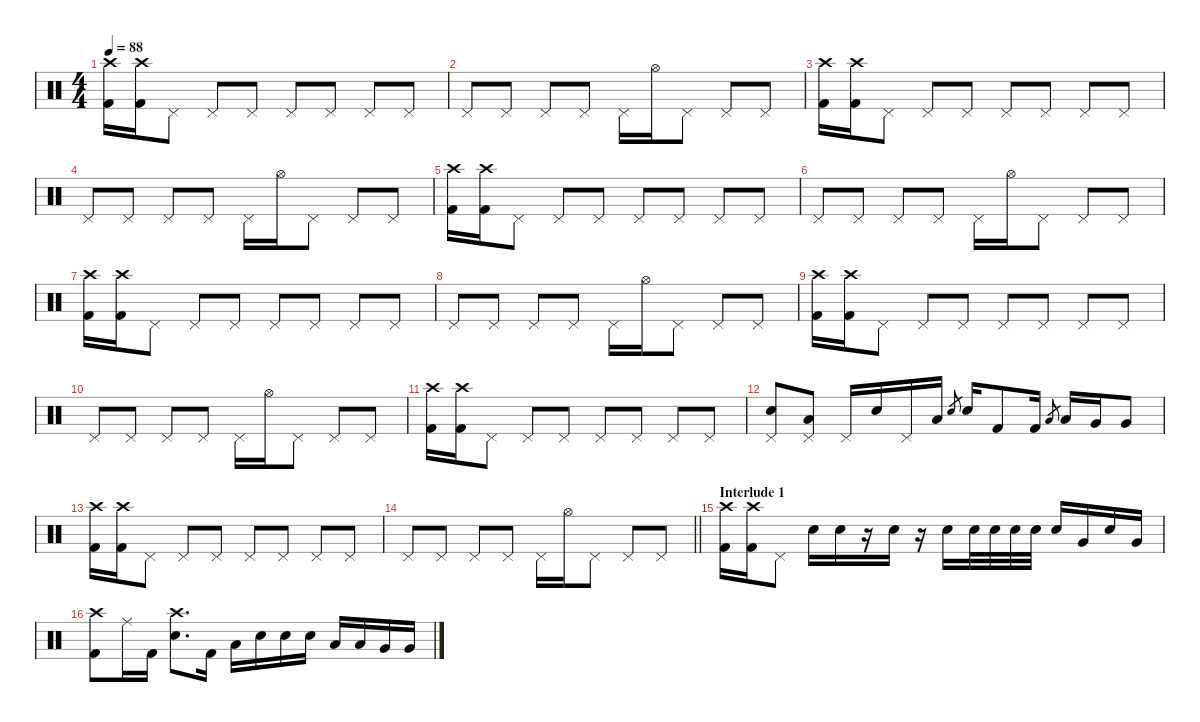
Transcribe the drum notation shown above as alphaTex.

\defaultSystemsLayout 4
\hideDynamics
\bracketExtendMode nobrackets
\singleTrackTrackNamePolicy hidden
\multiTrackTrackNamePolicy hidden
\firstSystemTrackNameMode fullname
\firstSystemTrackNameOrientation horizontal
\otherSystemsTrackNameOrientation horizontal
\track ("Drums" "drm.") {instrument percussion}
\staff {score}
\articulation defaults
\ts (4 4)
\tempo 88
\clef neutral
\ks c
("Crash high (hit)" "Kick (hit) 2").16{dy f beam Down} ("Crash high (hit)" "Kick (hit) 2").16{beam Down} "Pedal Hi-Hat (hit)".8{beam Down} "Pedal Hi-Hat (hit)".8{beam Up} "Pedal Hi-Hat (hit)".8{beam Up} "Pedal Hi-Hat (hit)".8{beam Up} "Pedal Hi-Hat (hit)".8{beam Up} "Pedal Hi-Hat (hit)".8{beam Up} "Pedal Hi-Hat (hit)".8{beam Up} |
"Pedal Hi-Hat (hit)".8{beam Up} "Pedal Hi-Hat (hit)".8{beam Up} "Pedal Hi-Hat (hit)".8{beam Up} "Pedal Hi-Hat (hit)".8{beam Up} "Pedal Hi-Hat (hit)".16{beam Down} "Hi-Hat (open)".16{beam Down} "Pedal Hi-Hat (hit)".8{beam Down} "Pedal Hi-Hat (hit)".8{beam Up} "Pedal Hi-Hat (hit)".8{beam Up} |
("Crash high (hit)" "Kick (hit) 2").16{beam Down} ("Crash high (hit)" "Kick (hit) 2").16{beam Down} "Pedal Hi-Hat (hit)".8{beam Down} "Pedal Hi-Hat (hit)".8{beam Up} "Pedal Hi-Hat (hit)".8{beam Up} "Pedal Hi-Hat (hit)".8{beam Up} "Pedal Hi-Hat (hit)".8{beam Up} "Pedal Hi-Hat (hit)".8{beam Up} "Pedal Hi-Hat (hit)".8{beam Up} |
"Pedal Hi-Hat (hit)".8{beam Up} "Pedal Hi-Hat (hit)".8{beam Up} "Pedal Hi-Hat (hit)".8{beam Up} "Pedal Hi-Hat (hit)".8{beam Up} "Pedal Hi-Hat (hit)".16{beam Down} "Hi-Hat (open)".16{beam Down} "Pedal Hi-Hat (hit)".8{beam Down} "Pedal Hi-Hat (hit)".8{beam Up} "Pedal Hi-Hat (hit)".8{beam Up} |
("Crash high (hit)" "Kick (hit) 2").16{beam Down} ("Crash high (hit)" "Kick (hit) 2").16{beam Down} "Pedal Hi-Hat (hit)".8{beam Down} "Pedal Hi-Hat (hit)".8{beam Up} "Pedal Hi-Hat (hit)".8{beam Up} "Pedal Hi-Hat (hit)".8{beam Up} "Pedal Hi-Hat (hit)".8{beam Up} "Pedal Hi-Hat (hit)".8{beam Up} "Pedal Hi-Hat (hit)".8{beam Up} |
"Pedal Hi-Hat (hit)".8{beam Up} "Pedal Hi-Hat (hit)".8{beam Up} "Pedal Hi-Hat (hit)".8{beam Up} "Pedal Hi-Hat (hit)".8{beam Up} "Pedal Hi-Hat (hit)".16{beam Down} "Hi-Hat (open)".16{beam Down} "Pedal Hi-Hat (hit)".8{beam Down} "Pedal Hi-Hat (hit)".8{beam Up} "Pedal Hi-Hat (hit)".8{beam Up} |
("Crash high (hit)" "Kick (hit) 2").16{beam Down} ("Crash high (hit)" "Kick (hit) 2").16{beam Down} "Pedal Hi-Hat (hit)".8{beam Down} "Pedal Hi-Hat (hit)".8{beam Up} "Pedal Hi-Hat (hit)".8{beam Up} "Pedal Hi-Hat (hit)".8{beam Up} "Pedal Hi-Hat (hit)".8{beam Up} "Pedal Hi-Hat (hit)".8{beam Up} "Pedal Hi-Hat (hit)".8{beam Up} |
"Pedal Hi-Hat (hit)".8{beam Up} "Pedal Hi-Hat (hit)".8{beam Up} "Pedal Hi-Hat (hit)".8{beam Up} "Pedal Hi-Hat (hit)".8{beam Up} "Pedal Hi-Hat (hit)".16{beam Down} "Hi-Hat (open)".16{beam Down} "Pedal Hi-Hat (hit)".8{beam Down} "Pedal Hi-Hat (hit)".8{beam Up} "Pedal Hi-Hat (hit)".8{beam Up} |
("Crash high (hit)" "Kick (hit) 2").16{beam Down} ("Crash high (hit)" "Kick (hit) 2").16{beam Down} "Pedal Hi-Hat (hit)".8{beam Down} "Pedal Hi-Hat (hit)".8{beam Up} "Pedal Hi-Hat (hit)".8{beam Up} "Pedal Hi-Hat (hit)".8{beam Up} "Pedal Hi-Hat (hit)".8{beam Up} "Pedal Hi-Hat (hit)".8{beam Up} "Pedal Hi-Hat (hit)".8{beam Up} |
"Pedal Hi-Hat (hit)".8{beam Up} "Pedal Hi-Hat (hit)".8{beam Up} "Pedal Hi-Hat (hit)".8{beam Up} "Pedal Hi-Hat (hit)".8{beam Up} "Pedal Hi-Hat (hit)".16{beam Down} "Hi-Hat (open)".16{beam Down} "Pedal Hi-Hat (hit)".8{beam Down} "Pedal Hi-Hat (hit)".8{beam Up} "Pedal Hi-Hat (hit)".8{beam Up} |
("Crash high (hit)" "Kick (hit) 2").16{beam Down} ("Crash high (hit)" "Kick (hit) 2").16{beam Down} "Pedal Hi-Hat (hit)".8{beam Down} "Pedal Hi-Hat (hit)".8{beam Up} "Pedal Hi-Hat (hit)".8{beam Up} "Pedal Hi-Hat (hit)".8{beam Up} "Pedal Hi-Hat (hit)".8{beam Up} "Pedal Hi-Hat (hit)".8{beam Up} "Pedal Hi-Hat (hit)".8{beam Up} |
("Pedal Hi-Hat (hit)" "Snare (hit) 2").8{beam Up} ("Pedal Hi-Hat (hit)" "Low Tom (hit)").8{beam Up} "Pedal Hi-Hat (hit)".16{beam Up} "Snare (hit) 2".16{beam Up} "Pedal Hi-Hat (hit)".16{beam Up} "Low Tom (hit)".16{beam Up} "Snare (hit) 2".8{gr dy mf beam Up} "Snare (hit) 2".16{dy f beam Up} "Kick (hit) 2".8{beam Up} "Kick (hit) 2".16{beam Up} "Low Tom (hit)".8{gr dy mf beam Up} "Low Tom (hit)".16{dy f beam Up} "Very Low Tom (hit)".16{beam Up} "Very Low Tom (hit)".8{beam Up} |
("Crash high (hit)" "Kick (hit) 2").16{beam Down} ("Crash high (hit)" "Kick (hit) 2").16{beam Down} "Pedal Hi-Hat (hit)".8{beam Down} "Pedal Hi-Hat (hit)".8{beam Up} "Pedal Hi-Hat (hit)".8{beam Up} "Pedal Hi-Hat (hit)".8{beam Up} "Pedal Hi-Hat (hit)".8{beam Up} "Pedal Hi-Hat (hit)".8{beam Up} "Pedal Hi-Hat (hit)".8{beam Up} |
\barLineRight lightlight "Pedal Hi-Hat (hit)".8{beam Up} "Pedal Hi-Hat (hit)".8{beam Up} "Pedal Hi-Hat (hit)".8{beam Up} "Pedal Hi-Hat (hit)".8{beam Up} "Pedal Hi-Hat (hit)".16{beam Down} "Hi-Hat (open)".16{beam Down} "Pedal Hi-Hat (hit)".8{beam Down} "Pedal Hi-Hat (hit)".8{beam Up} "Pedal Hi-Hat (hit)".8{beam Up}
|
\section ("" "Interlude 1")
("Crash high (hit)" "Kick (hit) 2").16{beam Down} ("Crash high (hit)" "Kick (hit) 2").16{beam Down} "Pedal Hi-Hat (hit)".8{beam Down} "Snare (hit) 2".16{beam Down} "Snare (hit) 2".16{beam Down} r.16{beam Down} "Snare (hit) 2".16{beam Down} r.16{beam Down} "Snare (hit) 2".16{beam Down} "Snare (hit) 2".32{beam Down} "Snare (hit) 2".32{beam Down} "Snare (hit) 2".32{beam Down} "Snare (hit) 2".32{beam Down} "Snare (hit) 2".16{beam Up} "Very Low Tom (hit)".16{beam Up} "Snare (hit) 2".16{beam Up} "Very Low Tom (hit)".16{beam Up} |
("Crash high (hit)" "Kick (hit) 2").8{beam Down} "Ride (middle)".16{beam Down} "Kick (hit) 2".16{beam Down} ("Crash high (hit)" "Snare (hit) 2").8{d beam Down} "Kick (hit) 2".16{beam Down} "Low Tom (hit)".16{beam Down} "Snare (hit) 2".16{beam Down} "Snare (hit) 2".16{beam Down} "Snare (hit) 2".16{beam Down} "Low Tom (hit)".16{beam Up} "Low Tom (hit)".16{beam Up} "Very Low Tom (hit)".16{beam Up} "Very Low Tom (hit)".16{beam Up}
